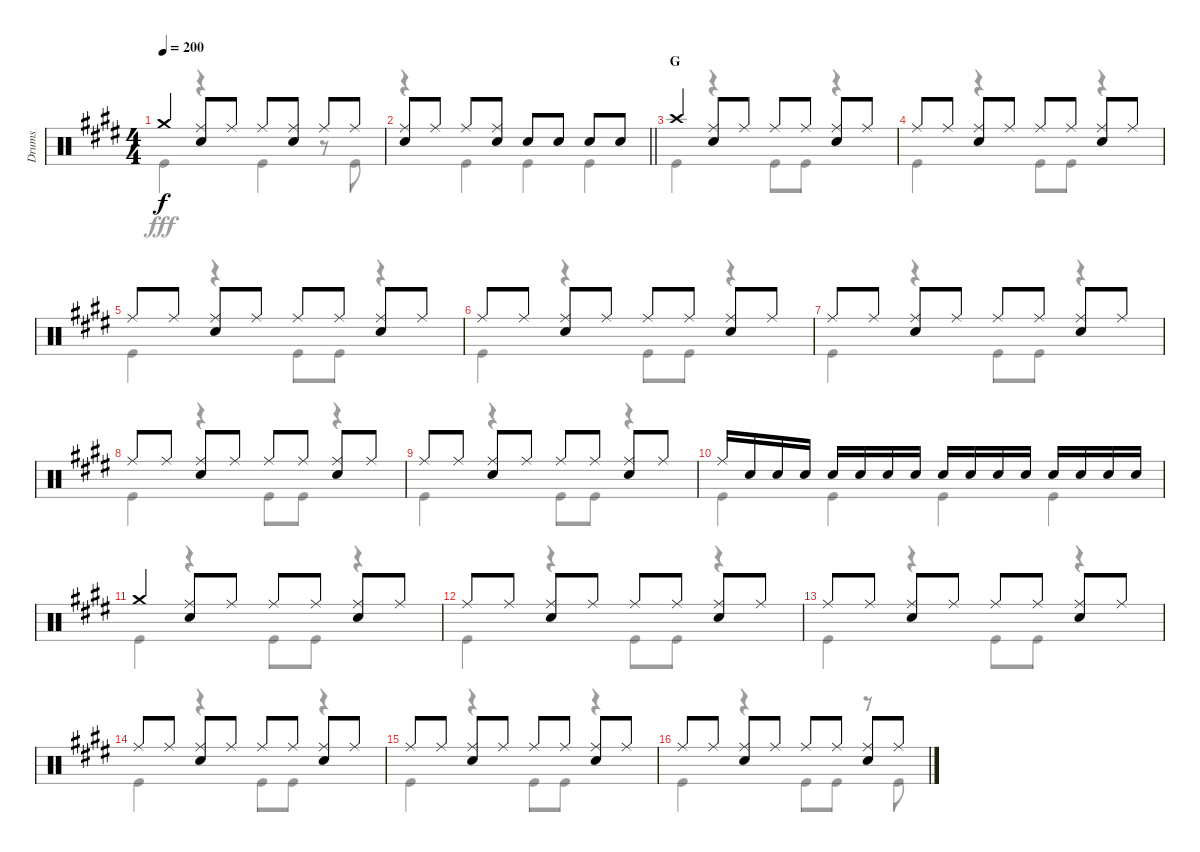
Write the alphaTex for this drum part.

\track ("Drums" "Drums") {instrument percussion}
\staff {score}
\articulation defaults
\voice
\ts (4 4)
\tempo 200
\clef neutral
\ks e "Crash medium (hit)".4{dy f}
("Ride (middle)" "Snare (hit) 2").8 "Ride (middle)".8 "Ride (middle)".8 ("Ride (middle)" "Snare (hit) 2").8 "Ride (middle)".8 "Ride (middle)".8 |
\barLineRight lightlight
("Ride (middle)" "Snare (hit) 2").8 "Ride (middle)".8 "Ride (middle)".8 ("Ride (middle)" "Snare (hit) 2").8 "Snare (hit) 2".8 "Snare (hit) 2".8 "Snare (hit) 2".8 "Snare (hit) 2".8 |
\section ("" "G")
"Crash high (hit)".4 ("Ride (middle)" "Snare (hit) 2").8 "Ride (middle)".8 "Ride (middle)".8 "Ride (middle)".8 ("Ride (middle)" "Snare (hit) 2").8 "Ride (middle)".8 |
"Ride (middle)".8 "Ride (middle)".8 ("Ride (middle)" "Snare (hit) 2").8 "Ride (middle)".8 "Ride (middle)".8 "Ride (middle)".8 ("Ride (middle)" "Snare (hit) 2").8 "Ride (middle)".8 |
"Ride (middle)".8 "Ride (middle)".8 ("Ride (middle)" "Snare (hit) 2").8 "Ride (middle)".8 "Ride (middle)".8 "Ride (middle)".8 ("Ride (middle)" "Snare (hit) 2").8 "Ride (middle)".8 |
"Ride (middle)".8 "Ride (middle)".8 ("Ride (middle)" "Snare (hit) 2").8 "Ride (middle)".8 "Ride (middle)".8 "Ride (middle)".8 ("Ride (middle)" "Snare (hit) 2").8 "Ride (middle)".8 |
"Ride (middle)".8 "Ride (middle)".8 ("Ride (middle)" "Snare (hit) 2").8 "Ride (middle)".8 "Ride (middle)".8 "Ride (middle)".8 ("Ride (middle)" "Snare (hit) 2").8 "Ride (middle)".8 |
"Ride (middle)".8 "Ride (middle)".8 ("Ride (middle)" "Snare (hit) 2").8 "Ride (middle)".8 "Ride (middle)".8 "Ride (middle)".8 ("Ride (middle)" "Snare (hit) 2").8 "Ride (middle)".8 |
"Ride (middle)".8 "Ride (middle)".8 ("Ride (middle)" "Snare (hit) 2").8 "Ride (middle)".8 "Ride (middle)".8 "Ride (middle)".8 ("Ride (middle)" "Snare (hit) 2").8 "Ride (middle)".8 |
"Ride (middle)".16 "Snare (hit) 2".16 "Snare (hit) 2".16 "Snare (hit) 2".16 "Snare (hit) 2".16 "Snare (hit) 2".16 "Snare (hit) 2".16 "Snare (hit) 2".16 "Snare (hit) 2".16 "Snare (hit) 2".16 "Snare (hit) 2".16 "Snare (hit) 2".16 "Snare (hit) 2".16 "Snare (hit) 2".16 "Snare (hit) 2".16 "Snare (hit) 2".16 |
"Crash medium (hit)".4 ("Ride (middle)" "Snare (hit) 2").8 "Ride (middle)".8 "Ride (middle)".8 "Ride (middle)".8 ("Ride (middle)" "Snare (hit) 2").8 "Ride (middle)".8 |
"Ride (middle)".8 "Ride (middle)".8 ("Ride (middle)" "Snare (hit) 2").8 "Ride (middle)".8 "Ride (middle)".8 "Ride (middle)".8 ("Ride (middle)" "Snare (hit) 2").8 "Ride (middle)".8 |
"Ride (middle)".8 "Ride (middle)".8 ("Ride (middle)" "Snare (hit) 2").8 "Ride (middle)".8 "Ride (middle)".8 "Ride (middle)".8 ("Ride (middle)" "Snare (hit) 2").8 "Ride (middle)".8 |
"Ride (middle)".8 "Ride (middle)".8 ("Ride (middle)" "Snare (hit) 2").8 "Ride (middle)".8 "Ride (middle)".8 "Ride (middle)".8 ("Ride (middle)" "Snare (hit) 2").8 "Ride (middle)".8 |
"Ride (middle)".8 "Ride (middle)".8 ("Ride (middle)" "Snare (hit) 2").8 "Ride (middle)".8 "Ride (middle)".8 "Ride (middle)".8 ("Ride (middle)" "Snare (hit) 2").8 "Ride (middle)".8 |
"Ride (middle)".8 "Ride (middle)".8 ("Ride (middle)" "Snare (hit) 2").8 "Ride (middle)".8 "Ride (middle)".8 "Ride (middle)".8 ("Ride (middle)" "Snare (hit) 2").8 "Ride (middle)".8
\voice
\clef neutral
\ottava regular
\simile none
\ks e "Kick (hit)".4{dy fff}
r.4 "Kick (hit)".4 r.8 "Kick (hit)".8 |
\barLineRight lightlight
r.4 "Kick (hit)".4 "Kick (hit)".4 "Kick (hit)".4 |
"Kick (hit)".4 r.4 "Kick (hit)".8 "Kick (hit)".8 r.4 |
"Kick (hit)".4 r.4 "Kick (hit)".8 "Kick (hit)".8 r.4 |
"Kick (hit)".4 r.4 "Kick (hit)".8 "Kick (hit)".8 r.4 |
"Kick (hit)".4 r.4 "Kick (hit)".8 "Kick (hit)".8 r.4 |
"Kick (hit)".4 r.4 "Kick (hit)".8 "Kick (hit)".8 r.4 |
"Kick (hit)".4 r.4 "Kick (hit)".8 "Kick (hit)".8 r.4 |
"Kick (hit)".4 r.4 "Kick (hit)".8 "Kick (hit)".8 r.4 |
"Kick (hit)".4 "Kick (hit)".4 "Kick (hit)".4 "Kick (hit)".4 |
"Kick (hit)".4 r.4 "Kick (hit)".8 "Kick (hit)".8 r.4 |
"Kick (hit)".4 r.4 "Kick (hit)".8 "Kick (hit)".8 r.4 |
"Kick (hit)".4 r.4 "Kick (hit)".8 "Kick (hit)".8 r.4 |
"Kick (hit)".4 r.4 "Kick (hit)".8 "Kick (hit)".8 r.4 |
"Kick (hit)".4 r.4 "Kick (hit)".8 "Kick (hit)".8 r.4 |
"Kick (hit)".4 r.4 "Kick (hit)".8 "Kick (hit)".8 r.8 "Kick (hit)".8
